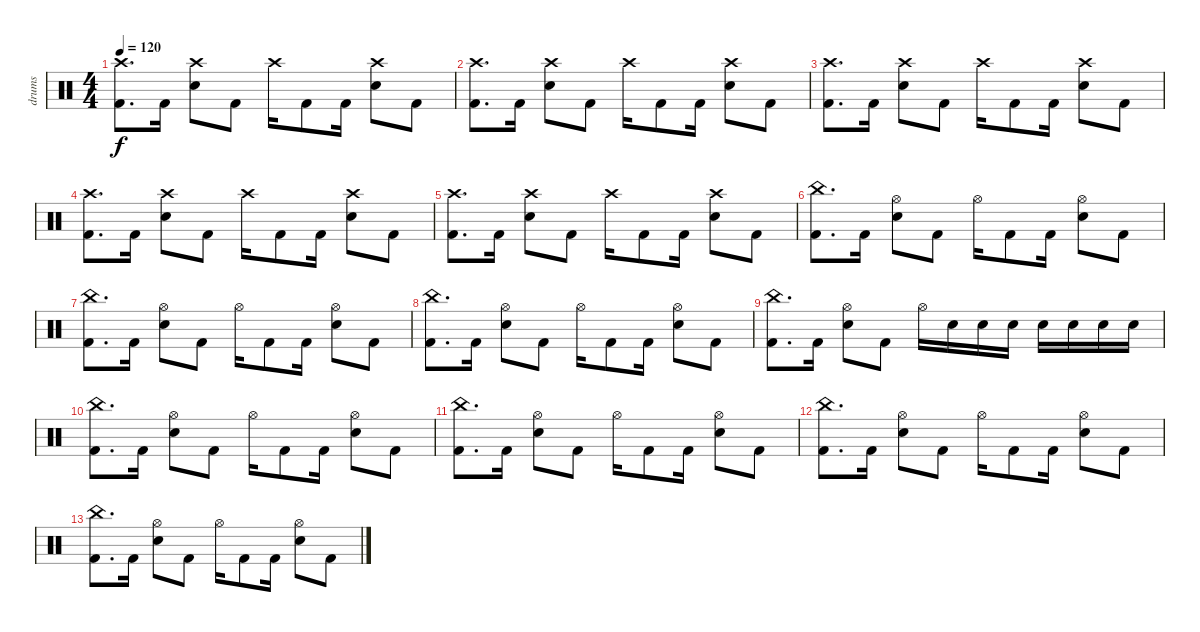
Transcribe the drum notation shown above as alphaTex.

\track ("drums" "drums") {instrument percussion}
\staff {score}
\articulation defaults
\ts (4 4)
\tempo 120
\clef neutral
\ks c
("Crash high (hit)" "Kick (hit) 2").8{d dy f} "Kick (hit) 2".16 ("Crash high (hit)" "Electric Snare (hit)").8 "Kick (hit) 2".8 "Crash high (hit)".16 "Kick (hit) 2".8 "Kick (hit) 2".16 ("Crash high (hit)" "Electric Snare (hit)").8 "Kick (hit) 2".8 |
("Crash high (hit)" "Kick (hit) 2").8{d} "Kick (hit) 2".16 ("Crash high (hit)" "Electric Snare (hit)").8 "Kick (hit) 2".8 "Crash high (hit)".16 "Kick (hit) 2".8 "Kick (hit) 2".16 ("Crash high (hit)" "Electric Snare (hit)").8 "Kick (hit) 2".8 |
("Crash high (hit)" "Kick (hit) 2").8{d} "Kick (hit) 2".16 ("Crash high (hit)" "Electric Snare (hit)").8 "Kick (hit) 2".8 "Crash high (hit)".16 "Kick (hit) 2".8 "Kick (hit) 2".16 ("Crash high (hit)" "Electric Snare (hit)").8 "Kick (hit) 2".8 |
("Crash high (hit)" "Kick (hit) 2").8{d} "Kick (hit) 2".16 ("Crash high (hit)" "Electric Snare (hit)").8 "Kick (hit) 2".8 "Crash high (hit)".16 "Kick (hit) 2".8 "Kick (hit) 2".16 ("Crash high (hit)" "Electric Snare (hit)").8 "Kick (hit) 2".8 |
("Crash high (hit)" "Kick (hit) 2").8{d} "Kick (hit) 2".16 ("Crash high (hit)" "Electric Snare (hit)").8 "Kick (hit) 2".8 "Crash high (hit)".16 "Kick (hit) 2".8 "Kick (hit) 2".16 ("Crash high (hit)" "Electric Snare (hit)").8 "Kick (hit) 2".8 |
("China (hit)" "Kick (hit) 2").8{d} "Kick (hit) 2".16 ("Hi-Hat (open)" "Electric Snare (hit)").8 "Kick (hit) 2".8 "Hi-Hat (open)".16 "Kick (hit) 2".8 "Kick (hit) 2".16 ("Hi-Hat (open)" "Electric Snare (hit)").8 "Kick (hit) 2".8 |
("China (hit)" "Kick (hit) 2").8{d} "Kick (hit) 2".16 ("Hi-Hat (open)" "Electric Snare (hit)").8 "Kick (hit) 2".8 "Hi-Hat (open)".16 "Kick (hit) 2".8 "Kick (hit) 2".16 ("Hi-Hat (open)" "Electric Snare (hit)").8 "Kick (hit) 2".8 |
("China (hit)" "Kick (hit) 2").8{d} "Kick (hit) 2".16 ("Hi-Hat (open)" "Electric Snare (hit)").8 "Kick (hit) 2".8 "Hi-Hat (open)".16 "Kick (hit) 2".8 "Kick (hit) 2".16 ("Hi-Hat (open)" "Electric Snare (hit)").8 "Kick (hit) 2".8 |
("China (hit)" "Kick (hit) 2").8{d} "Kick (hit) 2".16 ("Hi-Hat (open)" "Electric Snare (hit)").8 "Kick (hit) 2".8 "Hi-Hat (open)".16 "Electric Snare (hit)".16 "Electric Snare (hit)".16 "Electric Snare (hit)".16 "Electric Snare (hit)".16 "Electric Snare (hit)".16 "Electric Snare (hit)".16 "Electric Snare (hit)".16 |
("China (hit)" "Kick (hit) 2").8{d} "Kick (hit) 2".16 ("Hi-Hat (open)" "Electric Snare (hit)").8 "Kick (hit) 2".8 "Hi-Hat (open)".16 "Kick (hit) 2".8 "Kick (hit) 2".16 ("Hi-Hat (open)" "Electric Snare (hit)").8 "Kick (hit) 2".8 |
("China (hit)" "Kick (hit) 2").8{d} "Kick (hit) 2".16 ("Hi-Hat (open)" "Electric Snare (hit)").8 "Kick (hit) 2".8 "Hi-Hat (open)".16 "Kick (hit) 2".8 "Kick (hit) 2".16 ("Hi-Hat (open)" "Electric Snare (hit)").8 "Kick (hit) 2".8 |
("China (hit)" "Kick (hit) 2").8{d} "Kick (hit) 2".16 ("Hi-Hat (open)" "Electric Snare (hit)").8 "Kick (hit) 2".8 "Hi-Hat (open)".16 "Kick (hit) 2".8 "Kick (hit) 2".16 ("Hi-Hat (open)" "Electric Snare (hit)").8 "Kick (hit) 2".8 |
("China (hit)" "Kick (hit) 2").8{d} "Kick (hit) 2".16 ("Hi-Hat (open)" "Electric Snare (hit)").8 "Kick (hit) 2".8 "Hi-Hat (open)".16 "Kick (hit) 2".8 "Kick (hit) 2".16 ("Hi-Hat (open)" "Electric Snare (hit)").8 "Kick (hit) 2".8
